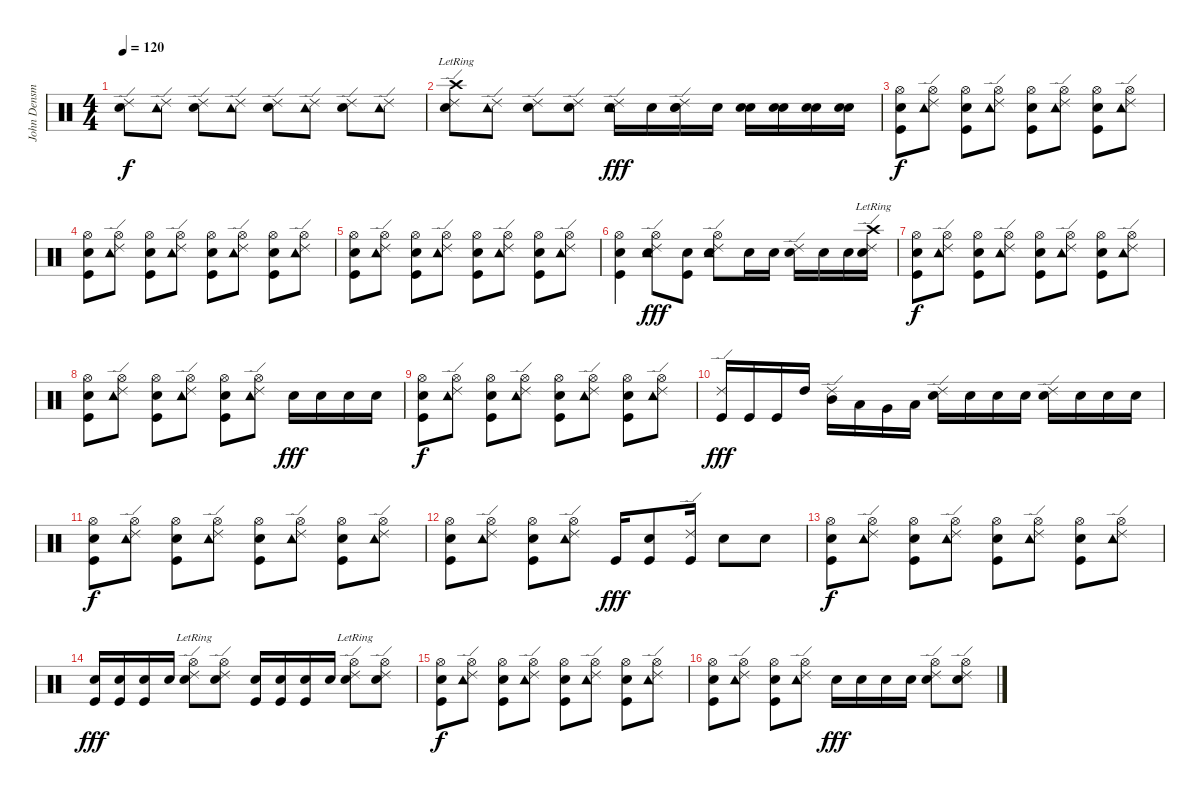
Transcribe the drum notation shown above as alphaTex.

\track ("John Densmore" "John Densm") {instrument percussion}
\staff {score}
\articulation defaults
\ts (4 4)
\tempo 120
\clef neutral
\ks c
("Ride (edge) 2" "Electric Snare (hit)").8{dy f} ("Ride (edge) 2" "Tambourine (hit)").8 ("Ride (edge) 2" "Snare (hit) 2").8 ("Ride (edge) 2" "Tambourine (hit)").8 ("Ride (edge) 2" "Electric Snare (hit)").8 ("Ride (edge) 2" "Tambourine (hit)").8 ("Ride (edge) 2" "Snare (hit) 2").8 ("Ride (edge) 2" "Tambourine (hit)").8 |
("Crash high (hit)"{lr} "Ride (edge) 2" "Electric Snare (hit)").8 ("Ride (edge) 2" "Tambourine (hit)").8 ("Ride (edge) 2" "Snare (hit) 2").8 ("Ride (edge) 2" "Electric Snare (hit)").8 ("Snare (hit) 2" "Ride (edge) 2" "Tambourine (hit)").16{dy fff} "Snare (hit) 2".16 ("Snare (hit) 2" "Ride (edge) 2" "Snare (hit) 2").16 "Snare (hit) 2".16 ("Snare (hit) 2" "Snare (hit) 2").16 ("Snare (hit) 2" "Snare (hit) 2").16 ("Snare (hit) 2" "Snare (hit) 2").16 ("Snare (hit) 2" "Snare (hit) 2").16 |
("Snare (hit) 2" "Kick (hit)" "Hi-Hat (open)").8{dy f} ("Hi-Hat (open)" "Tambourine (hit)" "Ride (edge) 2").8 ("Electric Snare (hit)" "Kick (hit)" "Hi-Hat (open)").8 ("Hi-Hat (open)" "Tambourine (hit)" "Ride (edge) 2").8 ("Snare (hit) 2" "Kick (hit)" "Hi-Hat (open)").8 ("Hi-Hat (open)" "Tambourine (hit)" "Ride (edge) 2").8 ("Electric Snare (hit)" "Kick (hit)" "Hi-Hat (open)").8 ("Hi-Hat (open)" "Tambourine (hit)" "Ride (edge) 2").8 |
("Snare (hit) 2" "Kick (hit)" "Hi-Hat (open)").8 ("Hi-Hat (open)" "Tambourine (hit)" "Ride (edge) 2").8 ("Electric Snare (hit)" "Kick (hit)" "Hi-Hat (open)").8 ("Hi-Hat (open)" "Tambourine (hit)" "Ride (edge) 2").8 ("Snare (hit) 2" "Kick (hit)" "Hi-Hat (open)").8 ("Hi-Hat (open)" "Tambourine (hit)" "Ride (edge) 2").8 ("Electric Snare (hit)" "Kick (hit)" "Hi-Hat (open)").8 ("Hi-Hat (open)" "Tambourine (hit)" "Ride (edge) 2").8 |
("Snare (hit) 2" "Kick (hit)" "Hi-Hat (open)").8 ("Hi-Hat (open)" "Tambourine (hit)" "Ride (edge) 2").8 ("Electric Snare (hit)" "Kick (hit)" "Hi-Hat (open)").8 ("Hi-Hat (open)" "Tambourine (hit)" "Ride (edge) 2").8 ("Snare (hit) 2" "Kick (hit)" "Hi-Hat (open)").8 ("Hi-Hat (open)" "Tambourine (hit)" "Ride (edge) 2").8 ("Electric Snare (hit)" "Kick (hit)" "Hi-Hat (open)").8 ("Hi-Hat (open)" "Tambourine (hit)" "Ride (edge) 2").8 |
("Snare (hit) 2" "Kick (hit)" "Hi-Hat (open)").4 ("Electric Snare (hit)" "Hi-Hat (open)" "Tambourine (hit)" "Ride (edge) 2").8{dy fff} ("Electric Snare (hit)" "Kick (hit)").8 ("Electric Snare (hit)" "Hi-Hat (open)" "Tambourine (hit)" "Ride (edge) 2").8 "Snare (hit) 2".16 "Snare (hit) 2".16 ("Snare (hit) 2" "Ride (edge) 2").16 "Snare (hit) 2".16 "Snare (hit) 2".16 ("Snare (hit) 2" "Crash high (hit)"{lr} "Ride (edge) 2"{lr}).16 |
("Snare (hit) 2" "Kick (hit)" "Hi-Hat (open)").8{dy f} ("Hi-Hat (open)" "Tambourine (hit)" "Ride (edge) 2").8 ("Electric Snare (hit)" "Kick (hit)" "Hi-Hat (open)").8 ("Hi-Hat (open)" "Tambourine (hit)" "Ride (edge) 2").8 ("Snare (hit) 2" "Kick (hit)" "Hi-Hat (open)").8 ("Hi-Hat (open)" "Tambourine (hit)" "Ride (edge) 2").8 ("Electric Snare (hit)" "Kick (hit)" "Hi-Hat (open)").8 ("Hi-Hat (open)" "Tambourine (hit)" "Ride (edge) 2").8 |
("Snare (hit) 2" "Kick (hit)" "Hi-Hat (open)").8 ("Hi-Hat (open)" "Tambourine (hit)" "Ride (edge) 2").8 ("Electric Snare (hit)" "Kick (hit)" "Hi-Hat (open)").8 ("Hi-Hat (open)" "Tambourine (hit)" "Ride (edge) 2").8 ("Electric Snare (hit)" "Kick (hit)" "Hi-Hat (open)").8 ("Hi-Hat (open)" "Tambourine (hit)" "Ride (edge) 2").8 "Snare (hit) 2".16{dy fff} "Snare (hit) 2".16 "Snare (hit) 2".16 "Snare (hit) 2".16 |
("Snare (hit) 2" "Kick (hit)" "Hi-Hat (open)").8{dy f} ("Hi-Hat (open)" "Tambourine (hit)" "Ride (edge) 2").8 ("Electric Snare (hit)" "Kick (hit)" "Hi-Hat (open)").8 ("Hi-Hat (open)" "Tambourine (hit)" "Ride (edge) 2").8 ("Snare (hit) 2" "Kick (hit)" "Hi-Hat (open)").8 ("Hi-Hat (open)" "Tambourine (hit)" "Ride (edge) 2").8 ("Electric Snare (hit)" "Kick (hit)" "Hi-Hat (open)").8 ("Hi-Hat (open)" "Tambourine (hit)" "Ride (edge) 2").8 |
("Kick (hit)" "Ride (edge) 2").16{dy fff} "Kick (hit)".16 "Kick (hit)".16 "High Tom (hit)".16 ("Mid Tom (hit)" "Ride (edge) 2").16 "Low Tom (hit)".16 "Very Low Tom (hit)".16 "Low Floor Tom (hit)".16 ("Electric Snare (hit)" "Ride (edge) 2").16 "Electric Snare (hit)".16 "Electric Snare (hit)".16 "Electric Snare (hit)".16 ("Snare (hit) 2" "Ride (edge) 2").16 "Snare (hit) 2".16 "Snare (hit) 2".16 "Snare (hit) 2".16 |
("Snare (hit) 2" "Kick (hit)" "Hi-Hat (open)").8{dy f} ("Hi-Hat (open)" "Tambourine (hit)" "Ride (edge) 2").8 ("Electric Snare (hit)" "Kick (hit)" "Hi-Hat (open)").8 ("Hi-Hat (open)" "Tambourine (hit)" "Ride (edge) 2").8 ("Snare (hit) 2" "Kick (hit)" "Hi-Hat (open)").8 ("Hi-Hat (open)" "Tambourine (hit)" "Ride (edge) 2").8 ("Electric Snare (hit)" "Kick (hit)" "Hi-Hat (open)").8 ("Hi-Hat (open)" "Tambourine (hit)" "Ride (edge) 2").8 |
("Snare (hit) 2" "Kick (hit)" "Hi-Hat (open)").8 ("Hi-Hat (open)" "Tambourine (hit)" "Ride (edge) 2").8 ("Electric Snare (hit)" "Kick (hit)" "Hi-Hat (open)").8 ("Hi-Hat (open)" "Tambourine (hit)" "Ride (edge) 2").8 "Kick (hit)".16{dy fff} ("Electric Snare (hit)" "Kick (hit)").8 ("Kick (hit)" "Ride (edge) 2").16 "Snare (hit) 2".8 "Snare (hit) 2".8 |
("Snare (hit) 2" "Kick (hit)" "Hi-Hat (open)").8{dy f} ("Hi-Hat (open)" "Tambourine (hit)" "Ride (edge) 2").8 ("Electric Snare (hit)" "Kick (hit)" "Hi-Hat (open)").8 ("Hi-Hat (open)" "Tambourine (hit)" "Ride (edge) 2").8 ("Snare (hit) 2" "Kick (hit)" "Hi-Hat (open)").8 ("Hi-Hat (open)" "Tambourine (hit)" "Ride (edge) 2").8 ("Electric Snare (hit)" "Kick (hit)" "Hi-Hat (open)").8 ("Hi-Hat (open)" "Tambourine (hit)" "Ride (edge) 2").8 |
("Snare (hit) 2" "Kick (hit)").16{dy fff} ("Snare (hit) 2" "Kick (hit)").16 ("Snare (hit) 2" "Kick (hit)").16 "Snare (hit) 2".16 ("Electric Snare (hit)" "Hi-Hat (open)"{lr} "Ride (edge) 2").8 ("Electric Snare (hit)" "Hi-Hat (open)"{lr} "Ride (edge) 2").8 ("Snare (hit) 2" "Kick (hit)").16 ("Snare (hit) 2" "Kick (hit)").16 ("Snare (hit) 2" "Kick (hit)").16 "Snare (hit) 2".16 ("Electric Snare (hit)" "Hi-Hat (open)"{lr} "Ride (edge) 2").8 ("Electric Snare (hit)" "Hi-Hat (open)"{lr} "Ride (edge) 2").8 |
("Snare (hit) 2" "Kick (hit)" "Hi-Hat (open)").8{dy f} ("Hi-Hat (open)" "Tambourine (hit)" "Ride (edge) 2").8 ("Electric Snare (hit)" "Kick (hit)" "Hi-Hat (open)").8 ("Hi-Hat (open)" "Tambourine (hit)" "Ride (edge) 2").8 ("Snare (hit) 2" "Kick (hit)" "Hi-Hat (open)").8 ("Hi-Hat (open)" "Tambourine (hit)" "Ride (edge) 2").8 ("Electric Snare (hit)" "Kick (hit)" "Hi-Hat (open)").8 ("Hi-Hat (open)" "Tambourine (hit)" "Ride (edge) 2").8 |
("Snare (hit) 2" "Kick (hit)" "Hi-Hat (open)").8 ("Hi-Hat (open)" "Tambourine (hit)" "Ride (edge) 2").8 ("Electric Snare (hit)" "Kick (hit)" "Hi-Hat (open)").8 ("Hi-Hat (open)" "Tambourine (hit)" "Ride (edge) 2").8 "Snare (hit) 2".16{dy fff} "Snare (hit) 2".16 "Snare (hit) 2".16 "Snare (hit) 2".16 ("Electric Snare (hit)" "Hi-Hat (open)" "Ride (edge) 2").8 ("Electric Snare (hit)" "Hi-Hat (open)" "Ride (edge) 2").8
